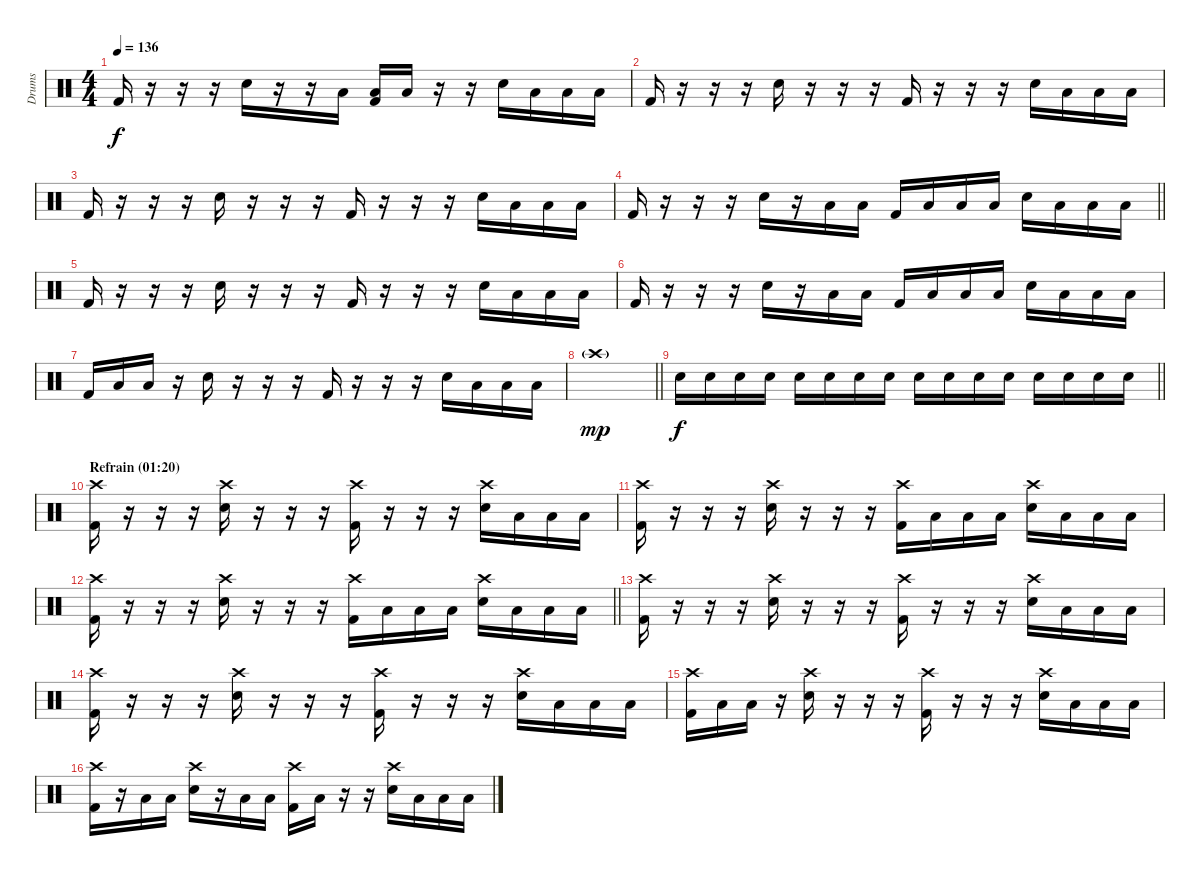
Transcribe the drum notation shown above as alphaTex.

\track ("Drums" "Drums") {instrument percussion}
\staff {score}
\articulation defaults
\ts (4 4)
\tempo 136
\clef neutral
\ks c "Kick (hit) 2".16{dy f}
r.16 r.16 r.16 "Electric Snare (hit)".16 r.16 r.16 "Low Floor Tom (hit)".16 ("Low Floor Tom (hit)" "Kick (hit) 2").16 "Low Floor Tom (hit)".16 r.16 r.16 "Electric Snare (hit)".16 "Low Floor Tom (hit)".16 "Low Floor Tom (hit)".16 "Low Floor Tom (hit)".16 |
"Kick (hit) 2".16 r.16 r.16 r.16 "Electric Snare (hit)".16 r.16 r.16 r.16 "Kick (hit) 2".16 r.16 r.16 r.16 "Electric Snare (hit)".16 "Low Floor Tom (hit)".16 "Low Floor Tom (hit)".16 "Low Floor Tom (hit)".16 |
"Kick (hit) 2".16 r.16 r.16 r.16 "Electric Snare (hit)".16 r.16 r.16 r.16 "Kick (hit) 2".16 r.16 r.16 r.16 "Electric Snare (hit)".16 "Low Floor Tom (hit)".16 "Low Floor Tom (hit)".16 "Low Floor Tom (hit)".16 |
\barLineRight lightlight "Kick (hit) 2".16
r.16 r.16 r.16 "Electric Snare (hit)".16 r.16 "Low Floor Tom (hit)".16 "Low Floor Tom (hit)".16 "Kick (hit) 2".16 "Low Floor Tom (hit)".16 "Low Floor Tom (hit)".16 "Low Floor Tom (hit)".16 "Electric Snare (hit)".16 "Low Floor Tom (hit)".16 "Low Floor Tom (hit)".16 "Low Floor Tom (hit)".16 |
"Kick (hit) 2".16 r.16 r.16 r.16 "Electric Snare (hit)".16 r.16 r.16 r.16 "Kick (hit) 2".16 r.16 r.16 r.16 "Electric Snare (hit)".16 "Low Floor Tom (hit)".16 "Low Floor Tom (hit)".16 "Low Floor Tom (hit)".16 |
"Kick (hit) 2".16 r.16 r.16 r.16 "Electric Snare (hit)".16 r.16 "Low Floor Tom (hit)".16 "Low Floor Tom (hit)".16 "Kick (hit) 2".16 "Low Floor Tom (hit)".16 "Low Floor Tom (hit)".16 "Low Floor Tom (hit)".16 "Electric Snare (hit)".16 "Low Floor Tom (hit)".16 "Low Floor Tom (hit)".16 "Low Floor Tom (hit)".16 |
"Kick (hit) 2".16 "Low Floor Tom (hit)".16 "Low Floor Tom (hit)".16 r.16 "Electric Snare (hit)".16 r.16 r.16 r.16 "Kick (hit) 2".16 r.16 r.16 r.16 "Electric Snare (hit)".16 "Low Floor Tom (hit)".16 "Low Floor Tom (hit)".16 "Low Floor Tom (hit)".16 |
\barLineRight lightlight "Crash high (hit)"{g}.1{dy mp}
|
\barLineRight lightlight "Electric Snare (hit)".16{dy f} "Electric Snare (hit)".16 "Electric Snare (hit)".16 "Electric Snare (hit)".16 "Electric Snare (hit)".16 "Electric Snare (hit)".16 "Electric Snare (hit)".16 "Electric Snare (hit)".16 "Electric Snare (hit)".16 "Electric Snare (hit)".16 "Electric Snare (hit)".16 "Electric Snare (hit)".16 "Electric Snare (hit)".16 "Electric Snare (hit)".16 "Electric Snare (hit)".16 "Electric Snare (hit)".16
|
\section ("" "Refrain (01:20)")
("Crash high (hit)" "Kick (hit) 2").16 r.16 r.16 r.16 ("Crash high (hit)" "Electric Snare (hit)").16 r.16 r.16 r.16 ("Crash high (hit)" "Kick (hit) 2").16 r.16 r.16 r.16 ("Crash high (hit)" "Electric Snare (hit)").16 "Low Floor Tom (hit)".16 "Low Floor Tom (hit)".16 "Low Floor Tom (hit)".16 |
("Crash high (hit)" "Kick (hit) 2").16 r.16 r.16 r.16 ("Crash high (hit)" "Electric Snare (hit)").16 r.16 r.16 r.16 ("Crash high (hit)" "Kick (hit) 2").16 "Low Floor Tom (hit)".16 "Low Floor Tom (hit)".16 "Low Floor Tom (hit)".16 ("Crash high (hit)" "Electric Snare (hit)").16 "Low Floor Tom (hit)".16 "Low Floor Tom (hit)".16 "Low Floor Tom (hit)".16 |
\barLineRight lightlight
("Crash high (hit)" "Kick (hit) 2").16 r.16 r.16 r.16 ("Crash high (hit)" "Electric Snare (hit)").16 r.16 r.16 r.16 ("Crash high (hit)" "Kick (hit) 2").16 "Low Floor Tom (hit)".16 "Low Floor Tom (hit)".16 "Low Floor Tom (hit)".16 ("Crash high (hit)" "Electric Snare (hit)").16 "Low Floor Tom (hit)".16 "Low Floor Tom (hit)".16 "Low Floor Tom (hit)".16 |
("Crash high (hit)" "Kick (hit) 2").16 r.16 r.16 r.16 ("Crash high (hit)" "Electric Snare (hit)").16 r.16 r.16 r.16 ("Crash high (hit)" "Kick (hit) 2").16 r.16 r.16 r.16 ("Crash high (hit)" "Electric Snare (hit)").16 "Low Floor Tom (hit)".16 "Low Floor Tom (hit)".16 "Low Floor Tom (hit)".16 |
("Crash high (hit)" "Kick (hit) 2").16 r.16 r.16 r.16 ("Crash high (hit)" "Electric Snare (hit)").16 r.16 r.16 r.16 ("Crash high (hit)" "Kick (hit) 2").16 r.16 r.16 r.16 ("Crash high (hit)" "Electric Snare (hit)").16 "Low Floor Tom (hit)".16 "Low Floor Tom (hit)".16 "Low Floor Tom (hit)".16 |
("Crash high (hit)" "Kick (hit) 2").16 "Low Floor Tom (hit)".16 "Low Floor Tom (hit)".16 r.16 ("Crash high (hit)" "Electric Snare (hit)").16 r.16 r.16 r.16 ("Crash high (hit)" "Kick (hit) 2").16 r.16 r.16 r.16 ("Crash high (hit)" "Electric Snare (hit)").16 "Low Floor Tom (hit)".16 "Low Floor Tom (hit)".16 "Low Floor Tom (hit)".16 |
("Crash high (hit)" "Kick (hit) 2").16 r.16 "Low Floor Tom (hit)".16 "Low Floor Tom (hit)".16 ("Crash high (hit)" "Electric Snare (hit)").16 r.16 "Low Floor Tom (hit)".16 "Low Floor Tom (hit)".16 ("Crash high (hit)" "Kick (hit) 2").16 "Low Floor Tom (hit)".16 r.16 r.16 ("Crash high (hit)" "Electric Snare (hit)").16 "Low Floor Tom (hit)".16 "Low Floor Tom (hit)".16 "Low Floor Tom (hit)".16
